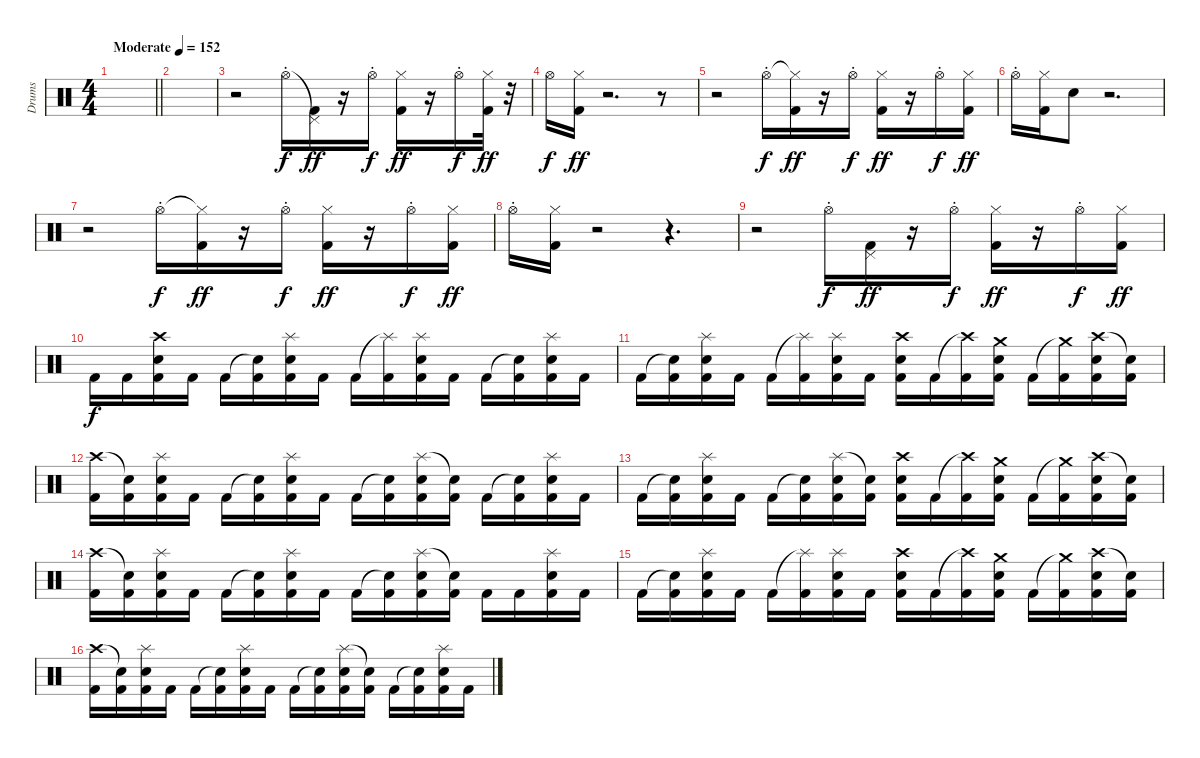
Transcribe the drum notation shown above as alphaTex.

\track ("Drums" "Drums") {instrument percussion}
\staff {score}
\articulation defaults
\ts (4 4)
\tempo (152 "Moderate")
\clef neutral
\barLineRight lightlight
\ks c
|
\section ("" "")
|
r.2 "Hi-Hat (open)"{st}.16 ("Pedal Hi-Hat (hit)"{t} "Kick (hit) 2").16{dy ff} r.16 "Hi-Hat (open)"{st}.16{dy f} ("Hi-Hat (closed)" "Kick (hit) 2").16{dy ff} r.16 "Hi-Hat (open)"{st}.16{dy f} ("Hi-Hat (closed)" "Kick (hit) 2").32{dy ff} r.32 |
"Hi-Hat (open)".16{dy f} ("Hi-Hat (closed)" "Kick (hit) 2").16{dy ff} r.2{d} r.8 |
r.2 "Hi-Hat (open)"{st}.16{dy f} ("Hi-Hat (closed)"{t} "Kick (hit) 2").16{dy ff} r.16 "Hi-Hat (open)"{st}.16{dy f} ("Hi-Hat (closed)" "Kick (hit) 2").16{dy ff} r.16 "Hi-Hat (open)"{st}.16{dy f} ("Hi-Hat (closed)" "Kick (hit) 2").16{dy ff} |
"Hi-Hat (open)"{st}.16 ("Hi-Hat (closed)" "Kick (hit) 2").16 "Electric Snare (hit)".8 r.2{d} |
r.2 "Hi-Hat (open)"{st}.16{dy f} ("Hi-Hat (closed)"{t} "Kick (hit) 2").16{dy ff} r.16 "Hi-Hat (open)"{st}.16{dy f} ("Hi-Hat (closed)" "Kick (hit) 2").16{dy ff} r.16 "Hi-Hat (open)"{st}.16{dy f} ("Hi-Hat (closed)" "Kick (hit) 2").16{dy ff} |
"Hi-Hat (open)"{st}.16 ("Hi-Hat (closed)" "Kick (hit) 2").16 r.2 r.4{d} |
r.2 "Hi-Hat (open)"{st}.16{dy f} ("Pedal Hi-Hat (hit)" "Kick (hit) 2").16{dy ff} r.16 "Hi-Hat (open)"{st}.16{dy f} ("Hi-Hat (closed)" "Kick (hit) 2").16{dy ff} r.16 "Hi-Hat (open)"{st}.16{dy f} ("Hi-Hat (closed)" "Kick (hit) 2").16{dy ff} |
"Kick (hit) 2".16{dy f} "Kick (hit) 2".16 ("Crash high (hit)" "Electric Snare (hit)" "Kick (hit) 2").16 "Kick (hit) 2".16 "Kick (hit) 2".16 ("Snare (hit)"{t} "Kick (hit) 2").16 ("Splash (hit)" "Electric Snare (hit)" "Kick (hit) 2").16 "Kick (hit) 2".16 "Kick (hit) 2".16 ("Splash (hit)"{t} "Kick (hit) 2").16 ("Splash (hit)" "Electric Snare (hit)" "Kick (hit) 2").16 "Kick (hit) 2".16 "Kick (hit) 2".16 ("Snare (hit)"{t} "Kick (hit) 2").16 ("Splash (hit)" "Electric Snare (hit)" "Kick (hit) 2").16 "Kick (hit) 2".16 |
"Kick (hit) 2".16 ("Snare (hit)"{t} "Kick (hit) 2").16 ("Splash (hit)" "Electric Snare (hit)" "Kick (hit) 2").16 "Kick (hit) 2".16 "Kick (hit) 2".16 ("Splash (hit)"{t} "Kick (hit) 2").16 ("Splash (hit)" "Electric Snare (hit)" "Kick (hit) 2").16 "Kick (hit) 2".16 ("Crash high (hit)" "Electric Snare (hit)" "Kick (hit) 2").16 "Kick (hit) 2".16 ("Crash high (hit)"{t} "Kick (hit) 2").16 ("Crash medium (hit)" "Electric Snare (hit)" "Kick (hit) 2").16 "Kick (hit) 2".16 ("Crash medium (hit)"{t} "Kick (hit) 2").16 ("Crash high (hit)" "Electric Snare (hit)" "Kick (hit) 2").16 ("Snare (hit)"{t} "Kick (hit) 2").16 |
("Crash high (hit)" "Kick (hit) 2").16 ("Snare (hit)"{t} "Kick (hit) 2").16 ("Splash (hit)" "Electric Snare (hit)" "Kick (hit) 2").16 "Kick (hit) 2".16 "Kick (hit) 2".16 ("Snare (hit)"{t} "Kick (hit) 2").16 ("Splash (hit)" "Electric Snare (hit)" "Kick (hit) 2").16 "Kick (hit) 2".16 "Kick (hit) 2".16 ("Snare (hit)"{t} "Kick (hit) 2").16 ("Splash (hit)" "Electric Snare (hit)" "Kick (hit) 2").16 ("Snare (hit)"{t} "Kick (hit) 2").16 "Kick (hit) 2".16 ("Snare (hit)"{t} "Kick (hit) 2").16 ("Splash (hit)" "Electric Snare (hit)" "Kick (hit) 2").16 "Kick (hit) 2".16 |
"Kick (hit) 2".16 ("Snare (hit)"{t} "Kick (hit) 2").16 ("Splash (hit)" "Electric Snare (hit)" "Kick (hit) 2").16 "Kick (hit) 2".16 "Kick (hit) 2".16 ("Snare (hit)"{t} "Kick (hit) 2").16 ("Splash (hit)" "Electric Snare (hit)" "Kick (hit) 2").16 ("Snare (hit)"{t} "Kick (hit) 2").16 ("Crash high (hit)" "Electric Snare (hit)" "Kick (hit) 2").16 "Kick (hit) 2".16 ("Crash high (hit)"{t} "Kick (hit) 2").16 ("Crash medium (hit)" "Electric Snare (hit)" "Kick (hit) 2").16 "Kick (hit) 2".16 ("Crash medium (hit)"{t} "Kick (hit) 2").16 ("Crash high (hit)" "Electric Snare (hit)" "Kick (hit) 2").16 ("Snare (hit)"{t} "Kick (hit) 2").16 |
("Crash high (hit)" "Kick (hit) 2").16 ("Snare (hit)"{t} "Kick (hit) 2").16 ("Splash (hit)" "Electric Snare (hit)" "Kick (hit) 2").16 "Kick (hit) 2".16 "Kick (hit) 2".16 ("Snare (hit)"{t} "Kick (hit) 2").16 ("Splash (hit)" "Electric Snare (hit)" "Kick (hit) 2").16 "Kick (hit) 2".16 "Kick (hit) 2".16 ("Snare (hit)"{t} "Kick (hit) 2").16 ("Splash (hit)" "Electric Snare (hit)" "Kick (hit) 2").16 ("Snare (hit)"{t} "Kick (hit) 2").16 "Kick (hit) 2".16 "Kick (hit) 2".16 ("Splash (hit)" "Electric Snare (hit)" "Kick (hit) 2").16 "Kick (hit) 2".16 |
"Kick (hit) 2".16 ("Snare (hit)"{t} "Kick (hit) 2").16 ("Splash (hit)" "Electric Snare (hit)" "Kick (hit) 2").16 "Kick (hit) 2".16 "Kick (hit) 2".16 ("Splash (hit)"{t} "Kick (hit) 2").16 ("Splash (hit)" "Electric Snare (hit)" "Kick (hit) 2").16 "Kick (hit) 2".16 ("Crash high (hit)" "Electric Snare (hit)" "Kick (hit) 2").16 "Kick (hit) 2".16 ("Crash high (hit)"{t} "Kick (hit) 2").16 ("Crash medium (hit)" "Electric Snare (hit)" "Kick (hit) 2").16 "Kick (hit) 2".16 ("Crash medium (hit)"{t} "Kick (hit) 2").16 ("Crash high (hit)" "Electric Snare (hit)" "Kick (hit) 2").16 ("Snare (hit)"{t} "Kick (hit) 2").16 |
("Crash high (hit)" "Kick (hit) 2").16 ("Snare (hit)"{t} "Kick (hit) 2").16 ("Splash (hit)" "Electric Snare (hit)" "Kick (hit) 2").16 "Kick (hit) 2".16 "Kick (hit) 2".16 ("Snare (hit)"{t} "Kick (hit) 2").16 ("Splash (hit)" "Electric Snare (hit)" "Kick (hit) 2").16 "Kick (hit) 2".16 "Kick (hit) 2".16 ("Snare (hit)"{t} "Kick (hit) 2").16 ("Splash (hit)" "Electric Snare (hit)" "Kick (hit) 2").16 ("Snare (hit)"{t} "Kick (hit) 2").16 "Kick (hit) 2".16 ("Snare (hit)"{t} "Kick (hit) 2").16 ("Splash (hit)" "Electric Snare (hit)" "Kick (hit) 2").16 "Kick (hit) 2".16
